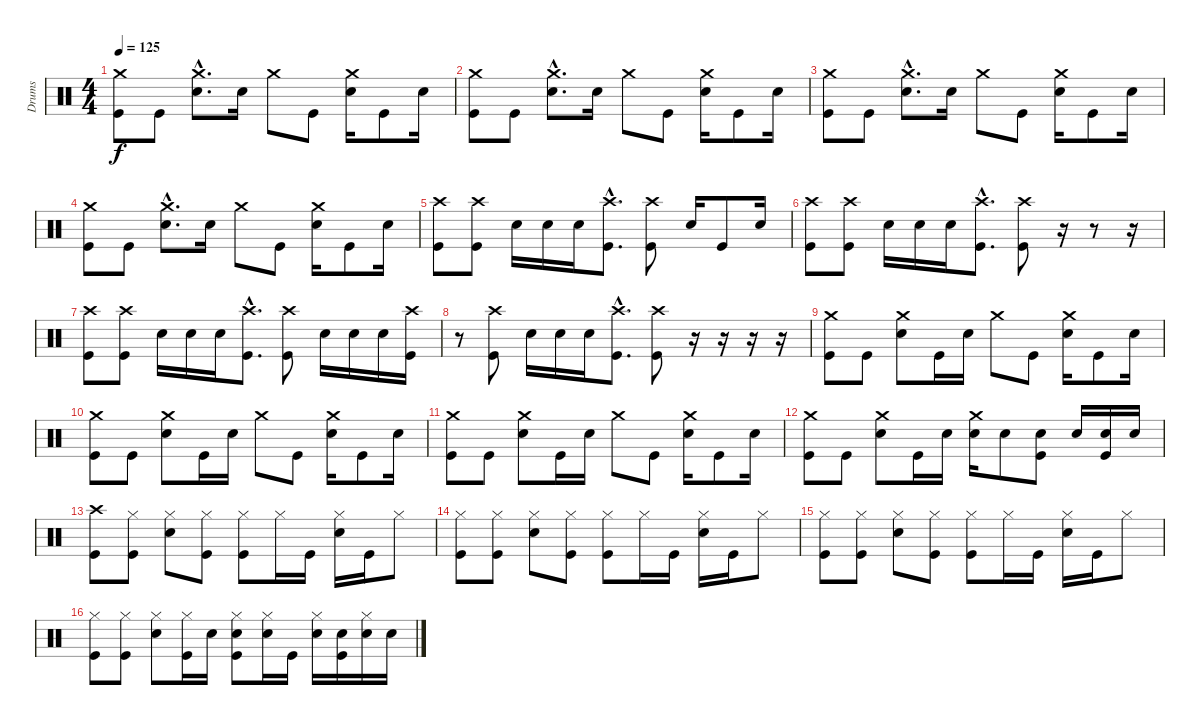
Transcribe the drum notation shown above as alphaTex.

\track ("Drums" "Drums") {instrument percussion}
\staff {score}
\articulation defaults
\ts (4 4)
\tempo 125
\clef neutral
\ks c
("Kick (hit)" "Crash medium (hit)").8{dy f} "Kick (hit)".8 ("Snare (hit) 2"{hac} "Crash medium (hit)"{hac}).8{d} "Snare (hit) 2".16 "Crash medium (hit)".8 "Kick (hit)".8 ("Snare (hit) 2" "Crash medium (hit)").16 "Kick (hit)".8 "Snare (hit) 2".16 |
("Kick (hit)" "Crash medium (hit)").8 "Kick (hit)".8 ("Snare (hit) 2"{hac} "Crash medium (hit)"{hac}).8{d} "Snare (hit) 2".16 "Crash medium (hit)".8 "Kick (hit)".8 ("Snare (hit) 2" "Crash medium (hit)").16 "Kick (hit)".8 "Snare (hit) 2".16 |
("Kick (hit)" "Crash medium (hit)").8 "Kick (hit)".8 ("Snare (hit) 2"{hac} "Crash medium (hit)"{hac}).8{d} "Snare (hit) 2".16 "Crash medium (hit)".8 "Kick (hit)".8 ("Snare (hit) 2" "Crash medium (hit)").16 "Kick (hit)".8 "Snare (hit) 2".16 |
("Kick (hit)" "Crash medium (hit)").8 "Kick (hit)".8 ("Snare (hit) 2"{hac} "Crash medium (hit)"{hac}).8{d} "Snare (hit) 2".16 "Crash medium (hit)".8 "Kick (hit)".8 ("Snare (hit) 2" "Crash medium (hit)").16 "Kick (hit)".8 "Snare (hit) 2".16 |
("Kick (hit)" "Crash high (hit)").8 ("Kick (hit)" "Crash high (hit)").8 "Snare (hit) 2".16 "Snare (hit) 2".16 "Snare (hit) 2".16 ("Kick (hit)"{hac} "Crash high (hit)"{hac}).8{d} ("Kick (hit)" "Crash high (hit)").8 "Snare (hit) 2".16 "Kick (hit)".8 "Snare (hit) 2".16 |
("Kick (hit)" "Crash high (hit)").8 ("Kick (hit)" "Crash high (hit)").8 "Snare (hit) 2".16 "Snare (hit) 2".16 "Snare (hit) 2".16 ("Kick (hit)"{hac} "Crash high (hit)"{hac}).8{d} ("Kick (hit)" "Crash high (hit)").8 r.16 r.8 r.16 |
("Kick (hit)" "Crash high (hit)").8 ("Kick (hit)" "Crash high (hit)").8 "Snare (hit) 2".16 "Snare (hit) 2".16 "Snare (hit) 2".16 ("Kick (hit)"{hac} "Crash high (hit)"{hac}).8{d} ("Kick (hit)" "Crash high (hit)").8 "Snare (hit) 2".16 "Snare (hit) 2".16 "Snare (hit) 2".16 ("Kick (hit)" "Crash high (hit)").16 |
r.8 ("Kick (hit)" "Crash high (hit)").8 "Snare (hit) 2".16 "Snare (hit) 2".16 "Snare (hit) 2".16 ("Kick (hit)"{hac} "Crash high (hit)"{hac}).8{d} ("Kick (hit)" "Crash high (hit)").8 r.16 r.16 r.16 r.16 |
("Kick (hit)" "Crash medium (hit)").8 "Kick (hit)".8 ("Snare (hit) 2" "Crash medium (hit)").8 "Kick (hit)".16 "Snare (hit) 2".16 "Crash medium (hit)".8 "Kick (hit)".8 ("Snare (hit) 2" "Crash medium (hit)").16 "Kick (hit)".8 "Snare (hit) 2".16 |
("Kick (hit)" "Crash medium (hit)").8 "Kick (hit)".8 ("Snare (hit) 2" "Crash medium (hit)").8 "Kick (hit)".16 "Snare (hit) 2".16 "Crash medium (hit)".8 "Kick (hit)".8 ("Snare (hit) 2" "Crash medium (hit)").16 "Kick (hit)".8 "Snare (hit) 2".16 |
("Kick (hit)" "Crash medium (hit)").8 "Kick (hit)".8 ("Snare (hit) 2" "Crash medium (hit)").8 "Kick (hit)".16 "Snare (hit) 2".16 "Crash medium (hit)".8 "Kick (hit)".8 ("Snare (hit) 2" "Crash medium (hit)").16 "Kick (hit)".8 "Snare (hit) 2".16 |
("Kick (hit)" "Crash medium (hit)").8 "Kick (hit)".8 ("Snare (hit) 2" "Crash medium (hit)").8 "Kick (hit)".16 "Snare (hit) 2".16 ("Snare (hit) 2" "Crash medium (hit)").16 "Snare (hit) 2".8 ("Kick (hit)" "Snare (hit) 2").8 "Snare (hit) 2".16 ("Kick (hit)" "Snare (hit) 2").16 "Snare (hit) 2".16 |
("Kick (hit)" "Crash high (hit)").8 ("Kick (hit)" "Hi-Hat (closed)").8 ("Snare (hit) 2" "Hi-Hat (closed)").8 ("Kick (hit)" "Hi-Hat (closed)").8 ("Kick (hit)" "Hi-Hat (closed)").8 "Hi-Hat (closed)".16 "Kick (hit)".16 ("Snare (hit) 2" "Hi-Hat (closed)").16 "Kick (hit)".16 "Hi-Hat (closed)".8 |
("Kick (hit)" "Hi-Hat (closed)").8 ("Kick (hit)" "Hi-Hat (closed)").8 ("Snare (hit) 2" "Hi-Hat (closed)").8 ("Kick (hit)" "Hi-Hat (closed)").8 ("Kick (hit)" "Hi-Hat (closed)").8 "Hi-Hat (closed)".16 "Kick (hit)".16 ("Snare (hit) 2" "Hi-Hat (closed)").16 "Kick (hit)".16 "Hi-Hat (closed)".8 |
("Kick (hit)" "Hi-Hat (closed)").8 ("Kick (hit)" "Hi-Hat (closed)").8 ("Snare (hit) 2" "Hi-Hat (closed)").8 ("Kick (hit)" "Hi-Hat (closed)").8 ("Kick (hit)" "Hi-Hat (closed)").8 "Hi-Hat (closed)".16 "Kick (hit)".16 ("Snare (hit) 2" "Hi-Hat (closed)").16 "Kick (hit)".16 "Hi-Hat (closed)".8 |
("Kick (hit)" "Hi-Hat (closed)").8 ("Kick (hit)" "Hi-Hat (closed)").8 ("Snare (hit) 2" "Hi-Hat (closed)").8 ("Kick (hit)" "Hi-Hat (closed)").16 "Snare (hit) 2".16 ("Kick (hit)" "Snare (hit) 2" "Hi-Hat (closed)").8 ("Snare (hit) 2" "Hi-Hat (closed)").16 "Kick (hit)".16 ("Snare (hit) 2" "Hi-Hat (closed)").16 ("Kick (hit)" "Snare (hit) 2").16 ("Snare (hit) 2" "Hi-Hat (closed)").16 "Snare (hit) 2".16
